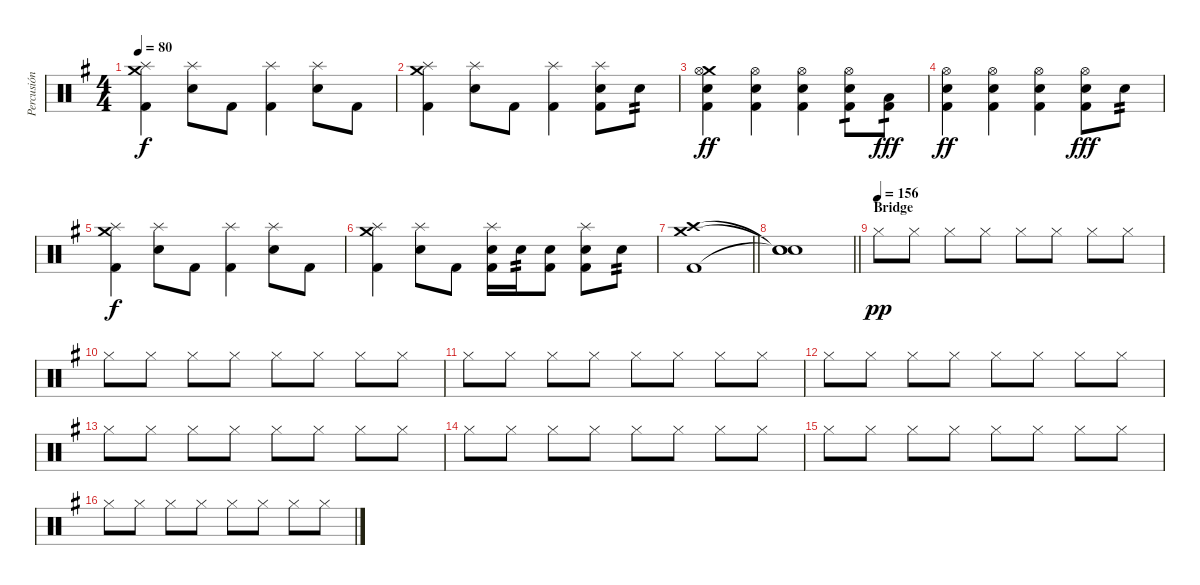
\track ("Percusión" "Percusión") {instrument percussion}
\staff {score}
\articulation defaults
\ts (4 4)
\tempo 80
\clef neutral
\ks eminor
("Crash medium (hit)" "Splash (hit)" "Kick (hit) 2").4{dy f} ("Splash (hit)" "Electric Snare (hit)").8 "Kick (hit) 2".8 ("Splash (hit)" "Kick (hit) 2").4 ("Splash (hit)" "Electric Snare (hit)").8 "Kick (hit) 2".8 |
("Crash medium (hit)" "Splash (hit)" "Kick (hit) 2").4 ("Splash (hit)" "Electric Snare (hit)").8 "Kick (hit) 2".8 ("Splash (hit)" "Kick (hit) 2").4 ("Splash (hit)" "Electric Snare (hit)" "Kick (hit) 2").8 "Electric Snare (hit)".8{tp 2} |
("Crash medium (hit)" "Hi-Hat (open)" "Electric Snare (hit)" "Kick (hit) 2").4{dy ff} ("Hi-Hat (open)" "Electric Snare (hit)" "Kick (hit) 2").4 ("Hi-Hat (open)" "Electric Snare (hit)" "Kick (hit) 2").4 ("Hi-Hat (open)" "Electric Snare (hit)" "Kick (hit) 2").8{tp 1} ("Low Tom (hit)" "Kick (hit) 2").8{tp 1 dy fff} |
("Hi-Hat (open)" "Electric Snare (hit)" "Kick (hit) 2").4{dy ff} ("Hi-Hat (open)" "Electric Snare (hit)" "Kick (hit) 2").4 ("Hi-Hat (open)" "Electric Snare (hit)" "Kick (hit) 2").4 ("Hi-Hat (open)" "Electric Snare (hit)" "Kick (hit) 2").8{dy fff} "Electric Snare (hit)".8{tp 2} |
("Crash medium (hit)" "Splash (hit)" "Kick (hit) 2").4{dy f} ("Splash (hit)" "Electric Snare (hit)").8 "Kick (hit) 2".8 ("Splash (hit)" "Kick (hit) 2").4 ("Splash (hit)" "Electric Snare (hit)").8 "Kick (hit) 2".8 |
("Crash medium (hit)" "Splash (hit)" "Kick (hit) 2").4 ("Splash (hit)" "Electric Snare (hit)").8 "Kick (hit) 2".8 ("Splash (hit)" "Electric Snare (hit)" "Kick (hit) 2").16 "Electric Snare (hit)".16{tp 2} ("Electric Snare (hit)" "Kick (hit) 2").8 ("Splash (hit)" "Electric Snare (hit)" "Kick (hit) 2").8 "Electric Snare (hit)".8{tp 2} |
\barLineRight lightlight
("Crash medium (hit)" "Crash high (hit)" "Kick (hit) 2").1 |
\barLineRight lightlight
("Snare (hit)"{t} "Snare (hit)"{t} "Snare (hit)"{t}).1 |
\section ("" "Bridge")
\tempo (156)
"Hi-Hat (closed)".8{dy pp} "Hi-Hat (closed)".8 "Hi-Hat (closed)".8 "Hi-Hat (closed)".8 "Hi-Hat (closed)".8 "Hi-Hat (closed)".8 "Hi-Hat (closed)".8 "Hi-Hat (closed)".8 |
"Hi-Hat (closed)".8 "Hi-Hat (closed)".8 "Hi-Hat (closed)".8 "Hi-Hat (closed)".8 "Hi-Hat (closed)".8 "Hi-Hat (closed)".8 "Hi-Hat (closed)".8 "Hi-Hat (closed)".8 |
"Hi-Hat (closed)".8 "Hi-Hat (closed)".8 "Hi-Hat (closed)".8 "Hi-Hat (closed)".8 "Hi-Hat (closed)".8 "Hi-Hat (closed)".8 "Hi-Hat (closed)".8 "Hi-Hat (closed)".8 |
"Hi-Hat (closed)".8 "Hi-Hat (closed)".8 "Hi-Hat (closed)".8 "Hi-Hat (closed)".8 "Hi-Hat (closed)".8 "Hi-Hat (closed)".8 "Hi-Hat (closed)".8 "Hi-Hat (closed)".8 |
"Hi-Hat (closed)".8 "Hi-Hat (closed)".8 "Hi-Hat (closed)".8 "Hi-Hat (closed)".8 "Hi-Hat (closed)".8 "Hi-Hat (closed)".8 "Hi-Hat (closed)".8 "Hi-Hat (closed)".8 |
"Hi-Hat (closed)".8 "Hi-Hat (closed)".8 "Hi-Hat (closed)".8 "Hi-Hat (closed)".8 "Hi-Hat (closed)".8 "Hi-Hat (closed)".8 "Hi-Hat (closed)".8 "Hi-Hat (closed)".8 |
"Hi-Hat (closed)".8 "Hi-Hat (closed)".8 "Hi-Hat (closed)".8 "Hi-Hat (closed)".8 "Hi-Hat (closed)".8 "Hi-Hat (closed)".8 "Hi-Hat (closed)".8 "Hi-Hat (closed)".8 |
"Hi-Hat (closed)".8 "Hi-Hat (closed)".8 "Hi-Hat (closed)".8 "Hi-Hat (closed)".8 "Hi-Hat (closed)".8 "Hi-Hat (closed)".8 "Hi-Hat (closed)".8 "Hi-Hat (closed)".8
